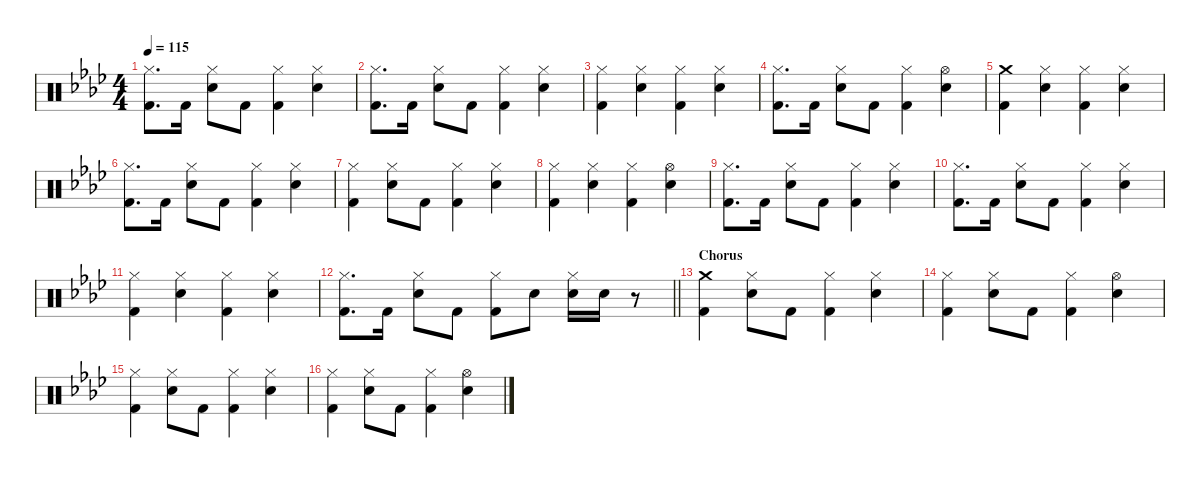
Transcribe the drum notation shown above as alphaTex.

\defaultSystemsLayout 4
\hideDynamics
\bracketExtendMode nobrackets
\singleTrackTrackNamePolicy hidden
\multiTrackTrackNamePolicy hidden
\firstSystemTrackNameMode fullname
\firstSystemTrackNameOrientation horizontal
\otherSystemsTrackNameOrientation horizontal
\track ("Drums" "drm.") {instrument percussion}
\staff {score}
\articulation defaults
\ts (4 4)
\tempo 115
\clef neutral
\ks ab
("Hi-Hat (closed)"{acc forcenatural} "Kick (hit) 2"{acc forcenatural}).8{d dy f beam Down} "Kick (hit) 2"{acc forcenatural}.16{beam Down} ("Hi-Hat (closed)"{acc forcenatural} "Snare (hit) 2"{acc forcenatural}).8{beam Down} "Kick (hit) 2"{acc forcenatural}.8{beam Down} ("Hi-Hat (closed)"{acc forcenatural} "Kick (hit) 2"{acc forcenatural}).4{beam Down} ("Hi-Hat (closed)"{acc forcenatural} "Snare (hit) 2"{acc forcenatural}).4{beam Down} |
("Hi-Hat (closed)"{acc forcenatural} "Kick (hit) 2"{acc forcenatural}).8{d beam Down} "Kick (hit) 2"{acc forcenatural}.16{beam Down} ("Hi-Hat (closed)"{acc forcenatural} "Snare (hit) 2"{acc forcenatural}).8{beam Down} "Kick (hit) 2"{acc forcenatural}.8{beam Down} ("Hi-Hat (closed)"{acc forcenatural} "Kick (hit) 2"{acc forcenatural}).4{beam Down} ("Hi-Hat (closed)"{acc forcenatural} "Snare (hit) 2"{acc forcenatural}).4{beam Down} |
("Hi-Hat (closed)"{acc forcenatural} "Kick (hit) 2"{acc forcenatural}).4{beam Down} ("Hi-Hat (closed)"{acc forcenatural} "Snare (hit) 2"{acc forcenatural}).4{beam Down} ("Hi-Hat (closed)"{acc forcenatural} "Kick (hit) 2"{acc forcenatural}).4{beam Down} ("Hi-Hat (closed)"{acc forcenatural} "Snare (hit) 2"{acc forcenatural}).4{beam Down} |
("Hi-Hat (closed)"{acc forcenatural} "Kick (hit) 2"{acc forcenatural}).8{d beam Down} "Kick (hit) 2"{acc forcenatural}.16{beam Down} ("Hi-Hat (closed)"{acc forcenatural} "Snare (hit) 2"{acc forcenatural}).8{beam Down} "Kick (hit) 2"{acc forcenatural}.8{beam Down} ("Hi-Hat (closed)"{acc forcenatural} "Kick (hit) 2"{acc forcenatural}).4{beam Down} ("Hi-Hat (open)"{acc forcenatural} "Snare (hit) 2"{acc forcenatural}).4{beam Down} |
("Crash medium (hit)"{acc forcenatural} "Kick (hit) 2"{acc forcenatural}).4{beam Down} ("Hi-Hat (closed)"{acc forcenatural} "Snare (hit) 2"{acc forcenatural}).4{beam Down} ("Hi-Hat (closed)"{acc forcenatural} "Kick (hit) 2"{acc forcenatural}).4{beam Down} ("Hi-Hat (closed)"{acc forcenatural} "Snare (hit) 2"{acc forcenatural}).4{beam Down} |
("Hi-Hat (closed)"{acc forcenatural} "Kick (hit) 2"{acc forcenatural}).8{d beam Down} "Kick (hit) 2"{acc forcenatural}.16{beam Down} ("Hi-Hat (closed)"{acc forcenatural} "Snare (hit) 2"{acc forcenatural}).8{beam Down} "Kick (hit) 2"{acc forcenatural}.8{beam Down} ("Hi-Hat (closed)"{acc forcenatural} "Kick (hit) 2"{acc forcenatural}).4{beam Down} ("Hi-Hat (closed)"{acc forcenatural} "Snare (hit) 2"{acc forcenatural}).4{beam Down} |
("Hi-Hat (closed)"{acc forcenatural} "Kick (hit) 2"{acc forcenatural}).4{beam Down} ("Hi-Hat (closed)"{acc forcenatural} "Snare (hit) 2"{acc forcenatural}).8{beam Down} "Kick (hit) 2"{acc forcenatural}.8{beam Down} ("Hi-Hat (closed)"{acc forcenatural} "Kick (hit) 2"{acc forcenatural}).4{beam Down} ("Hi-Hat (closed)"{acc forcenatural} "Snare (hit) 2"{acc forcenatural}).4{beam Down} |
("Hi-Hat (closed)"{acc forcenatural} "Kick (hit) 2"{acc forcenatural}).4{beam Down} ("Hi-Hat (closed)"{acc forcenatural} "Snare (hit) 2"{acc forcenatural}).4{beam Down} ("Hi-Hat (closed)"{acc forcenatural} "Kick (hit) 2"{acc forcenatural}).4{beam Down} ("Hi-Hat (open)"{acc forcenatural} "Snare (hit) 2"{acc forcenatural}).4{beam Down} |
("Hi-Hat (closed)"{acc forcenatural} "Kick (hit) 2"{acc forcenatural}).8{d beam Down} "Kick (hit) 2"{acc forcenatural}.16{beam Down} ("Hi-Hat (closed)"{acc forcenatural} "Snare (hit) 2"{acc forcenatural}).8{beam Down} "Kick (hit) 2"{acc forcenatural}.8{beam Down} ("Hi-Hat (closed)"{acc forcenatural} "Kick (hit) 2"{acc forcenatural}).4{beam Down} ("Hi-Hat (closed)"{acc forcenatural} "Snare (hit) 2"{acc forcenatural}).4{beam Down} |
("Hi-Hat (closed)"{acc forcenatural} "Kick (hit) 2"{acc forcenatural}).8{d beam Down} "Kick (hit) 2"{acc forcenatural}.16{beam Down} ("Hi-Hat (closed)"{acc forcenatural} "Snare (hit) 2"{acc forcenatural}).8{beam Down} "Kick (hit) 2"{acc forcenatural}.8{beam Down} ("Hi-Hat (closed)"{acc forcenatural} "Kick (hit) 2"{acc forcenatural}).4{beam Down} ("Hi-Hat (closed)"{acc forcenatural} "Snare (hit) 2"{acc forcenatural}).4{beam Down} |
("Hi-Hat (closed)"{acc forcenatural} "Kick (hit) 2"{acc forcenatural}).4{beam Down} ("Hi-Hat (closed)"{acc forcenatural} "Snare (hit) 2"{acc forcenatural}).4{beam Down} ("Hi-Hat (closed)"{acc forcenatural} "Kick (hit) 2"{acc forcenatural}).4{beam Down} ("Hi-Hat (closed)"{acc forcenatural} "Snare (hit) 2"{acc forcenatural}).4{beam Down} |
\barLineRight lightlight
("Hi-Hat (closed)"{acc forcenatural} "Kick (hit) 2"{acc forcenatural}).8{d beam Down} "Kick (hit) 2"{acc forcenatural}.16{beam Down} ("Hi-Hat (closed)"{acc forcenatural} "Snare (hit) 2"{acc forcenatural}).8{beam Down} "Kick (hit) 2"{acc forcenatural}.8{beam Down} ("Hi-Hat (closed)"{acc forcenatural} "Kick (hit) 2"{acc forcenatural}).8{beam Down} "Snare (hit) 2"{acc forcenatural}.8{beam Down} ("Hi-Hat (closed)"{acc forcenatural} "Snare (hit) 2"{acc forcenatural}).16{beam Down} "Snare (hit) 2"{acc forcenatural}.16{beam Down} r.8{beam Down} |
\section ("" "Chorus")
("Crash medium (hit)"{acc forcenatural} "Kick (hit) 2"{acc forcenatural}).4{beam Down} ("Hi-Hat (closed)"{acc forcenatural} "Snare (hit) 2"{acc forcenatural}).8{beam Down} "Kick (hit) 2"{acc forcenatural}.8{beam Down} ("Hi-Hat (closed)"{acc forcenatural} "Kick (hit) 2"{acc forcenatural}).4{beam Down} ("Hi-Hat (closed)"{acc forcenatural} "Snare (hit) 2"{acc forcenatural}).4{beam Down} |
("Hi-Hat (closed)"{acc forcenatural} "Kick (hit) 2"{acc forcenatural}).4{beam Down} ("Hi-Hat (closed)"{acc forcenatural} "Snare (hit) 2"{acc forcenatural}).8{beam Down} "Kick (hit) 2"{acc forcenatural}.8{beam Down} ("Hi-Hat (closed)"{acc forcenatural} "Kick (hit) 2"{acc forcenatural}).4{beam Down} ("Hi-Hat (open)"{acc forcenatural} "Snare (hit) 2"{acc forcenatural}).4{dy fff beam Down} |
("Hi-Hat (closed)"{acc forcenatural} "Kick (hit) 2"{acc forcenatural}).4{dy f beam Down} ("Hi-Hat (closed)"{acc forcenatural} "Snare (hit) 2"{acc forcenatural}).8{beam Down} "Kick (hit) 2"{acc forcenatural}.8{beam Down} ("Hi-Hat (closed)"{acc forcenatural} "Kick (hit) 2"{acc forcenatural}).4{beam Down} ("Hi-Hat (closed)"{acc forcenatural} "Snare (hit) 2"{acc forcenatural}).4{beam Down} |
("Hi-Hat (closed)"{acc forcenatural} "Kick (hit) 2"{acc forcenatural}).4{beam Down} ("Hi-Hat (closed)"{acc forcenatural} "Snare (hit) 2"{acc forcenatural}).8{beam Down} "Kick (hit) 2"{acc forcenatural}.8{beam Down} ("Hi-Hat (closed)"{acc forcenatural} "Kick (hit) 2"{acc forcenatural}).4{beam Down} ("Hi-Hat (open)"{acc forcenatural} "Snare (hit) 2"{acc forcenatural}).4{dy fff beam Down}
